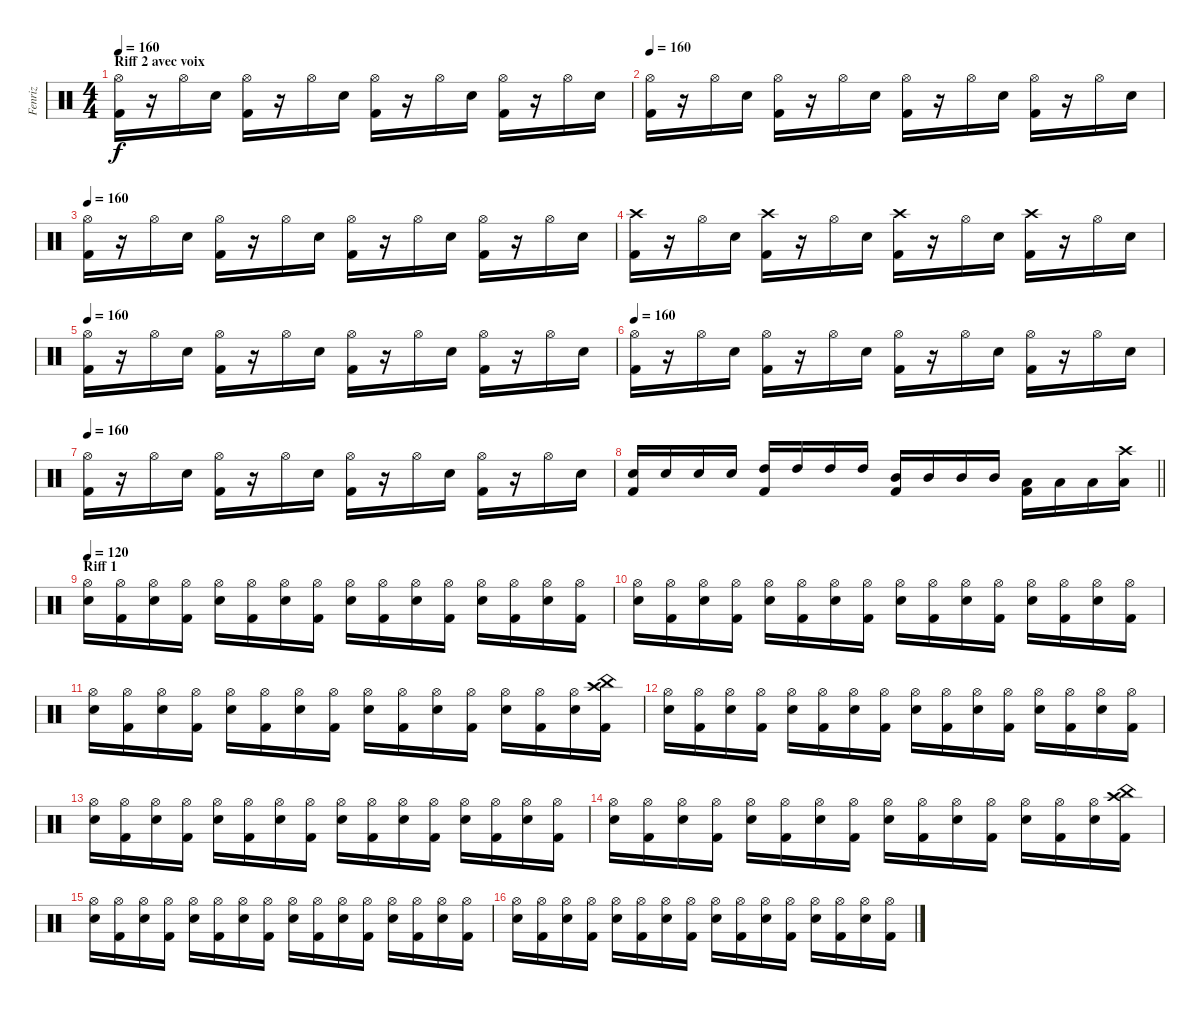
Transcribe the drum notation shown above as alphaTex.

\track ("Fenriz" "Fenriz") {instrument percussion}
\staff {score}
\articulation defaults
\ts (4 4)
\section ("" "Riff 2 avec voix")
\tempo 160
\clef neutral
\ks c
("Hi-Hat (open)" "Kick (hit) 2").16{dy f} r.16 "Hi-Hat (open)".16 "Electric Snare (hit)".16 ("Hi-Hat (open)" "Kick (hit) 2").16 r.16 "Hi-Hat (open)".16 "Electric Snare (hit)".16 ("Hi-Hat (open)" "Kick (hit) 2").16 r.16 "Hi-Hat (open)".16 "Electric Snare (hit)".16 ("Hi-Hat (open)" "Kick (hit) 2").16 r.16 "Hi-Hat (open)".16 "Electric Snare (hit)".16 |
\tempo 160
("Hi-Hat (open)" "Kick (hit) 2").16 r.16 "Hi-Hat (open)".16 "Electric Snare (hit)".16 ("Hi-Hat (open)" "Kick (hit) 2").16 r.16 "Hi-Hat (open)".16 "Electric Snare (hit)".16 ("Hi-Hat (open)" "Kick (hit) 2").16 r.16 "Hi-Hat (open)".16 "Electric Snare (hit)".16 ("Hi-Hat (open)" "Kick (hit) 2").16 r.16 "Hi-Hat (open)".16 "Electric Snare (hit)".16 |
\tempo 160
("Hi-Hat (open)" "Kick (hit) 2").16 r.16 "Hi-Hat (open)".16 "Electric Snare (hit)".16 ("Hi-Hat (open)" "Kick (hit) 2").16 r.16 "Hi-Hat (open)".16 "Electric Snare (hit)".16 ("Hi-Hat (open)" "Kick (hit) 2").16 r.16 "Hi-Hat (open)".16 "Electric Snare (hit)".16 ("Hi-Hat (open)" "Kick (hit) 2").16 r.16 "Hi-Hat (open)".16 "Electric Snare (hit)".16 |
("Crash high (hit)" "Kick (hit) 2").16 r.16 "Hi-Hat (open)".16 "Electric Snare (hit)".16 ("Crash high (hit)" "Kick (hit) 2").16 r.16 "Hi-Hat (open)".16 "Electric Snare (hit)".16 ("Crash high (hit)" "Kick (hit) 2").16 r.16 "Hi-Hat (open)".16 "Electric Snare (hit)".16 ("Crash high (hit)" "Kick (hit) 2").16 r.16 "Hi-Hat (open)".16 "Electric Snare (hit)".16 |
\tempo 160
("Hi-Hat (open)" "Kick (hit) 2").16 r.16 "Hi-Hat (open)".16 "Electric Snare (hit)".16 ("Hi-Hat (open)" "Kick (hit) 2").16 r.16 "Hi-Hat (open)".16 "Electric Snare (hit)".16 ("Hi-Hat (open)" "Kick (hit) 2").16 r.16 "Hi-Hat (open)".16 "Electric Snare (hit)".16 ("Hi-Hat (open)" "Kick (hit) 2").16 r.16 "Hi-Hat (open)".16 "Electric Snare (hit)".16 |
\tempo 160
("Hi-Hat (open)" "Kick (hit) 2").16 r.16 "Hi-Hat (open)".16 "Electric Snare (hit)".16 ("Hi-Hat (open)" "Kick (hit) 2").16 r.16 "Hi-Hat (open)".16 "Electric Snare (hit)".16 ("Hi-Hat (open)" "Kick (hit) 2").16 r.16 "Hi-Hat (open)".16 "Electric Snare (hit)".16 ("Hi-Hat (open)" "Kick (hit) 2").16 r.16 "Hi-Hat (open)".16 "Electric Snare (hit)".16 |
\tempo 160
("Hi-Hat (open)" "Kick (hit) 2").16 r.16 "Hi-Hat (open)".16 "Electric Snare (hit)".16 ("Hi-Hat (open)" "Kick (hit) 2").16 r.16 "Hi-Hat (open)".16 "Electric Snare (hit)".16 ("Hi-Hat (open)" "Kick (hit) 2").16 r.16 "Hi-Hat (open)".16 "Electric Snare (hit)".16 ("Hi-Hat (open)" "Kick (hit) 2").16 r.16 "Hi-Hat (open)".16 "Electric Snare (hit)".16 |
\barLineRight lightlight
("Electric Snare (hit)" "Kick (hit) 2").16 "Electric Snare (hit)".16 "Electric Snare (hit)".16 "Electric Snare (hit)".16 ("High Tom (hit)" "Kick (hit) 2").16 "High Tom (hit)".16 "High Tom (hit)".16 "High Tom (hit)".16 ("Mid Tom (hit)" "Kick (hit) 2").16 "Mid Tom (hit)".16 "Mid Tom (hit)".16 "Mid Tom (hit)".16 ("Low Tom (hit)" "Kick (hit) 2").16 "Low Tom (hit)".16 "Low Tom (hit)".16 ("Crash high (hit)" "Low Tom (hit)").16 |
\section ("" "Riff 1")
\tempo 120
("Hi-Hat (open)" "Electric Snare (hit)").16 ("Hi-Hat (open)" "Kick (hit) 2").16 ("Hi-Hat (open)" "Electric Snare (hit)").16 ("Hi-Hat (open)" "Kick (hit) 2").16 ("Hi-Hat (open)" "Electric Snare (hit)").16 ("Hi-Hat (open)" "Kick (hit) 2").16 ("Hi-Hat (open)" "Electric Snare (hit)").16 ("Hi-Hat (open)" "Kick (hit) 2").16 ("Hi-Hat (open)" "Electric Snare (hit)").16 ("Hi-Hat (open)" "Kick (hit) 2").16 ("Hi-Hat (open)" "Electric Snare (hit)").16 ("Hi-Hat (open)" "Kick (hit) 2").16 ("Hi-Hat (open)" "Electric Snare (hit)").16 ("Hi-Hat (open)" "Kick (hit) 2").16 ("Hi-Hat (open)" "Electric Snare (hit)").16 ("Hi-Hat (open)" "Kick (hit) 2").16 |
("Hi-Hat (open)" "Electric Snare (hit)").16 ("Hi-Hat (open)" "Kick (hit) 2").16 ("Hi-Hat (open)" "Electric Snare (hit)").16 ("Hi-Hat (open)" "Kick (hit) 2").16 ("Hi-Hat (open)" "Electric Snare (hit)").16 ("Hi-Hat (open)" "Kick (hit) 2").16 ("Hi-Hat (open)" "Electric Snare (hit)").16 ("Hi-Hat (open)" "Kick (hit) 2").16 ("Hi-Hat (open)" "Electric Snare (hit)").16 ("Hi-Hat (open)" "Kick (hit) 2").16 ("Hi-Hat (open)" "Electric Snare (hit)").16 ("Hi-Hat (open)" "Kick (hit) 2").16 ("Hi-Hat (open)" "Electric Snare (hit)").16 ("Hi-Hat (open)" "Kick (hit) 2").16 ("Hi-Hat (open)" "Electric Snare (hit)").16 ("Hi-Hat (open)" "Kick (hit) 2").16 |
("Hi-Hat (open)" "Electric Snare (hit)").16 ("Hi-Hat (open)" "Kick (hit) 2").16 ("Hi-Hat (open)" "Electric Snare (hit)").16 ("Hi-Hat (open)" "Kick (hit) 2").16 ("Hi-Hat (open)" "Electric Snare (hit)").16 ("Hi-Hat (open)" "Kick (hit) 2").16 ("Hi-Hat (open)" "Electric Snare (hit)").16 ("Hi-Hat (open)" "Kick (hit) 2").16 ("Hi-Hat (open)" "Electric Snare (hit)").16 ("Hi-Hat (open)" "Kick (hit) 2").16 ("Hi-Hat (open)" "Electric Snare (hit)").16 ("Hi-Hat (open)" "Kick (hit) 2").16 ("Hi-Hat (open)" "Electric Snare (hit)").16 ("Hi-Hat (open)" "Kick (hit) 2").16 ("Hi-Hat (open)" "Electric Snare (hit)").16 ("China (hit)" "Crash high (hit)" "Kick (hit) 2").16 |
("Hi-Hat (open)" "Electric Snare (hit)").16 ("Hi-Hat (open)" "Kick (hit) 2").16 ("Hi-Hat (open)" "Electric Snare (hit)").16 ("Hi-Hat (open)" "Kick (hit) 2").16 ("Hi-Hat (open)" "Electric Snare (hit)").16 ("Hi-Hat (open)" "Kick (hit) 2").16 ("Hi-Hat (open)" "Electric Snare (hit)").16 ("Hi-Hat (open)" "Kick (hit) 2").16 ("Hi-Hat (open)" "Electric Snare (hit)").16 ("Hi-Hat (open)" "Kick (hit) 2").16 ("Hi-Hat (open)" "Electric Snare (hit)").16 ("Hi-Hat (open)" "Kick (hit) 2").16 ("Hi-Hat (open)" "Electric Snare (hit)").16 ("Hi-Hat (open)" "Kick (hit) 2").16 ("Hi-Hat (open)" "Electric Snare (hit)").16 ("Hi-Hat (open)" "Kick (hit) 2").16 |
("Hi-Hat (open)" "Electric Snare (hit)").16 ("Hi-Hat (open)" "Kick (hit) 2").16 ("Hi-Hat (open)" "Electric Snare (hit)").16 ("Hi-Hat (open)" "Kick (hit) 2").16 ("Hi-Hat (open)" "Electric Snare (hit)").16 ("Hi-Hat (open)" "Kick (hit) 2").16 ("Hi-Hat (open)" "Electric Snare (hit)").16 ("Hi-Hat (open)" "Kick (hit) 2").16 ("Hi-Hat (open)" "Electric Snare (hit)").16 ("Hi-Hat (open)" "Kick (hit) 2").16 ("Hi-Hat (open)" "Electric Snare (hit)").16 ("Hi-Hat (open)" "Kick (hit) 2").16 ("Hi-Hat (open)" "Electric Snare (hit)").16 ("Hi-Hat (open)" "Kick (hit) 2").16 ("Hi-Hat (open)" "Electric Snare (hit)").16 ("Hi-Hat (open)" "Kick (hit) 2").16 |
("Hi-Hat (open)" "Electric Snare (hit)").16 ("Hi-Hat (open)" "Kick (hit) 2").16 ("Hi-Hat (open)" "Electric Snare (hit)").16 ("Hi-Hat (open)" "Kick (hit) 2").16 ("Hi-Hat (open)" "Electric Snare (hit)").16 ("Hi-Hat (open)" "Kick (hit) 2").16 ("Hi-Hat (open)" "Electric Snare (hit)").16 ("Hi-Hat (open)" "Kick (hit) 2").16 ("Hi-Hat (open)" "Electric Snare (hit)").16 ("Hi-Hat (open)" "Kick (hit) 2").16 ("Hi-Hat (open)" "Electric Snare (hit)").16 ("Hi-Hat (open)" "Kick (hit) 2").16 ("Hi-Hat (open)" "Electric Snare (hit)").16 ("Hi-Hat (open)" "Kick (hit) 2").16 ("Hi-Hat (open)" "Electric Snare (hit)").16 ("China (hit)" "Crash high (hit)" "Kick (hit) 2").16 |
("Hi-Hat (open)" "Electric Snare (hit)").16 ("Hi-Hat (open)" "Kick (hit) 2").16 ("Hi-Hat (open)" "Electric Snare (hit)").16 ("Hi-Hat (open)" "Kick (hit) 2").16 ("Hi-Hat (open)" "Electric Snare (hit)").16 ("Hi-Hat (open)" "Kick (hit) 2").16 ("Hi-Hat (open)" "Electric Snare (hit)").16 ("Hi-Hat (open)" "Kick (hit) 2").16 ("Hi-Hat (open)" "Electric Snare (hit)").16 ("Hi-Hat (open)" "Kick (hit) 2").16 ("Hi-Hat (open)" "Electric Snare (hit)").16 ("Hi-Hat (open)" "Kick (hit) 2").16 ("Hi-Hat (open)" "Electric Snare (hit)").16 ("Hi-Hat (open)" "Kick (hit) 2").16 ("Hi-Hat (open)" "Electric Snare (hit)").16 ("Hi-Hat (open)" "Kick (hit) 2").16 |
("Hi-Hat (open)" "Electric Snare (hit)").16 ("Hi-Hat (open)" "Kick (hit) 2").16 ("Hi-Hat (open)" "Electric Snare (hit)").16 ("Hi-Hat (open)" "Kick (hit) 2").16 ("Hi-Hat (open)" "Electric Snare (hit)").16 ("Hi-Hat (open)" "Kick (hit) 2").16 ("Hi-Hat (open)" "Electric Snare (hit)").16 ("Hi-Hat (open)" "Kick (hit) 2").16 ("Hi-Hat (open)" "Electric Snare (hit)").16 ("Hi-Hat (open)" "Kick (hit) 2").16 ("Hi-Hat (open)" "Electric Snare (hit)").16 ("Hi-Hat (open)" "Kick (hit) 2").16 ("Hi-Hat (open)" "Electric Snare (hit)").16 ("Hi-Hat (open)" "Kick (hit) 2").16 ("Hi-Hat (open)" "Electric Snare (hit)").16 ("Hi-Hat (open)" "Kick (hit) 2").16
